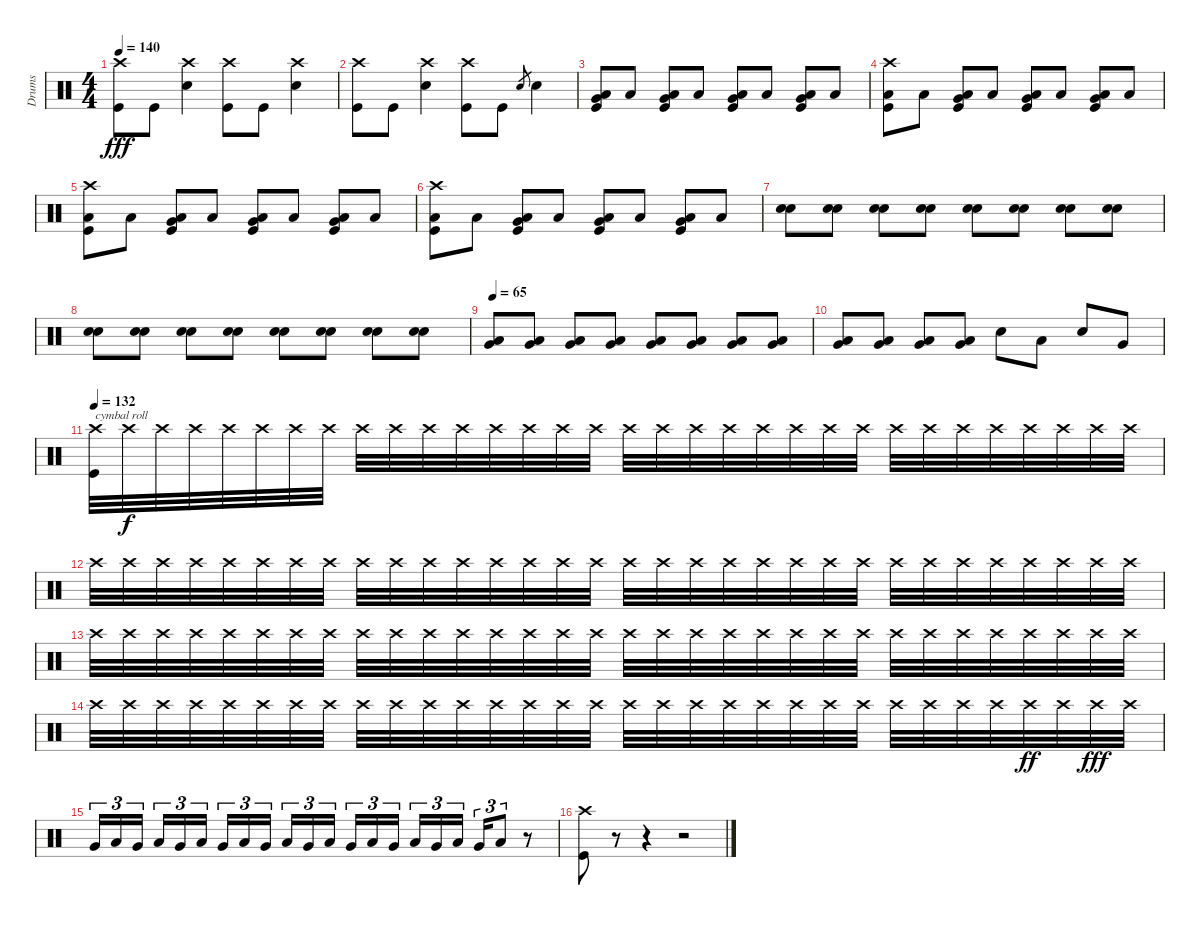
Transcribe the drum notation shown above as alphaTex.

\track ("Drums" "Drums") {instrument percussion}
\staff {score}
\articulation defaults
\ts (4 4)
\tempo 140
\clef neutral
\ks c
("Crash high (hit)" "Kick (hit)").8{dy fff} "Kick (hit)".8 ("Crash high (hit)" "Snare (hit) 2").4 ("Crash high (hit)" "Kick (hit)").8 "Kick (hit)".8 ("Crash high (hit)" "Snare (hit) 2").4 |
("Crash high (hit)" "Kick (hit)").8 "Kick (hit)".8 ("Crash high (hit)" "Snare (hit) 2").4 ("Crash high (hit)" "Kick (hit)").8 "Kick (hit)".8 "Snare (hit) 2".8{gr} "Snare (hit) 2".4 |
("Very Low Tom (hit)" "Low Floor Tom (hit)" "Kick (hit)").8 "Low Floor Tom (hit)".8 ("Very Low Tom (hit)" "Low Floor Tom (hit)" "Kick (hit)").8 "Low Floor Tom (hit)".8 ("Very Low Tom (hit)" "Low Floor Tom (hit)" "Kick (hit)").8 "Low Floor Tom (hit)".8 ("Very Low Tom (hit)" "Low Floor Tom (hit)" "Kick (hit)").8 "Low Floor Tom (hit)".8 |
("Crash high (hit)" "Low Floor Tom (hit)" "Kick (hit)").8 "Low Floor Tom (hit)".8 ("Very Low Tom (hit)" "Low Floor Tom (hit)" "Kick (hit)").8 "Low Floor Tom (hit)".8 ("Very Low Tom (hit)" "Low Floor Tom (hit)" "Kick (hit)").8 "Low Floor Tom (hit)".8 ("Very Low Tom (hit)" "Low Floor Tom (hit)" "Kick (hit)").8 "Low Floor Tom (hit)".8 |
("Crash high (hit)" "Low Floor Tom (hit)" "Kick (hit)").8 "Low Floor Tom (hit)".8 ("Very Low Tom (hit)" "Low Floor Tom (hit)" "Kick (hit)").8 "Low Floor Tom (hit)".8 ("Very Low Tom (hit)" "Low Floor Tom (hit)" "Kick (hit)").8 "Low Floor Tom (hit)".8 ("Very Low Tom (hit)" "Low Floor Tom (hit)" "Kick (hit)").8 "Low Floor Tom (hit)".8 |
("Crash high (hit)" "Low Floor Tom (hit)" "Kick (hit)").8 "Low Floor Tom (hit)".8 ("Very Low Tom (hit)" "Low Floor Tom (hit)" "Kick (hit)").8 "Low Floor Tom (hit)".8 ("Very Low Tom (hit)" "Low Floor Tom (hit)" "Kick (hit)").8 "Low Floor Tom (hit)".8 ("Very Low Tom (hit)" "Low Floor Tom (hit)" "Kick (hit)").8 "Low Floor Tom (hit)".8 |
("Snare (hit) 2" "Snare (hit) 2").8 ("Snare (hit) 2" "Snare (hit) 2").8 ("Snare (hit) 2" "Snare (hit) 2").8 ("Snare (hit) 2" "Snare (hit) 2").8 ("Snare (hit) 2" "Snare (hit) 2").8 ("Snare (hit) 2" "Snare (hit) 2").8 ("Snare (hit) 2" "Snare (hit) 2").8 ("Snare (hit) 2" "Snare (hit) 2").8 |
("Snare (hit) 2" "Snare (hit) 2").8 ("Snare (hit) 2" "Snare (hit) 2").8 ("Snare (hit) 2" "Snare (hit) 2").8 ("Snare (hit) 2" "Snare (hit) 2").8 ("Snare (hit) 2" "Snare (hit) 2").8 ("Snare (hit) 2" "Snare (hit) 2").8 ("Snare (hit) 2" "Snare (hit) 2").8 ("Snare (hit) 2" "Snare (hit) 2").8 |
\tempo 65
("Low Tom (hit)" "Very Low Tom (hit)").8 ("Low Tom (hit)" "Very Low Tom (hit)").8 ("Low Tom (hit)" "Very Low Tom (hit)").8 ("Low Tom (hit)" "Very Low Tom (hit)").8 ("Low Tom (hit)" "Very Low Tom (hit)").8 ("Low Tom (hit)" "Very Low Tom (hit)").8 ("Low Tom (hit)" "Very Low Tom (hit)").8 ("Low Tom (hit)" "Very Low Tom (hit)").8 |
("Low Tom (hit)" "Very Low Tom (hit)").8 ("Low Tom (hit)" "Very Low Tom (hit)").8 ("Low Tom (hit)" "Very Low Tom (hit)").8 ("Low Tom (hit)" "Very Low Tom (hit)").8 "Snare (hit) 2".8 "Low Tom (hit)".8 "Snare (hit) 2".8 "Very Low Tom (hit)".8 |
\tempo 132
("Crash high (hit)" "Kick (hit)").32{txt "cymbal roll"} "Crash high (hit)".32{dy f} "Crash high (hit)".32 "Crash high (hit)".32 "Crash high (hit)".32 "Crash high (hit)".32 "Crash high (hit)".32 "Crash high (hit)".32 "Crash high (hit)".32 "Crash high (hit)".32 "Crash high (hit)".32 "Crash high (hit)".32 "Crash high (hit)".32 "Crash high (hit)".32 "Crash high (hit)".32 "Crash high (hit)".32 "Crash high (hit)".32 "Crash high (hit)".32 "Crash high (hit)".32 "Crash high (hit)".32 "Crash high (hit)".32 "Crash high (hit)".32 "Crash high (hit)".32 "Crash high (hit)".32 "Crash high (hit)".32 "Crash high (hit)".32 "Crash high (hit)".32 "Crash high (hit)".32 "Crash high (hit)".32 "Crash high (hit)".32 "Crash high (hit)".32 "Crash high (hit)".32 |
"Crash high (hit)".32 "Crash high (hit)".32 "Crash high (hit)".32 "Crash high (hit)".32 "Crash high (hit)".32 "Crash high (hit)".32 "Crash high (hit)".32 "Crash high (hit)".32 "Crash high (hit)".32 "Crash high (hit)".32 "Crash high (hit)".32 "Crash high (hit)".32 "Crash high (hit)".32 "Crash high (hit)".32 "Crash high (hit)".32 "Crash high (hit)".32 "Crash high (hit)".32 "Crash high (hit)".32 "Crash high (hit)".32 "Crash high (hit)".32 "Crash high (hit)".32 "Crash high (hit)".32 "Crash high (hit)".32 "Crash high (hit)".32 "Crash high (hit)".32 "Crash high (hit)".32 "Crash high (hit)".32 "Crash high (hit)".32 "Crash high (hit)".32 "Crash high (hit)".32 "Crash high (hit)".32 "Crash high (hit)".32 |
"Crash high (hit)".32 "Crash high (hit)".32 "Crash high (hit)".32 "Crash high (hit)".32 "Crash high (hit)".32 "Crash high (hit)".32 "Crash high (hit)".32 "Crash high (hit)".32 "Crash high (hit)".32 "Crash high (hit)".32 "Crash high (hit)".32 "Crash high (hit)".32 "Crash high (hit)".32 "Crash high (hit)".32 "Crash high (hit)".32 "Crash high (hit)".32 "Crash high (hit)".32 "Crash high (hit)".32 "Crash high (hit)".32 "Crash high (hit)".32 "Crash high (hit)".32 "Crash high (hit)".32 "Crash high (hit)".32 "Crash high (hit)".32 "Crash high (hit)".32 "Crash high (hit)".32 "Crash high (hit)".32 "Crash high (hit)".32 "Crash high (hit)".32 "Crash high (hit)".32 "Crash high (hit)".32 "Crash high (hit)".32 |
"Crash high (hit)".32 "Crash high (hit)".32 "Crash high (hit)".32 "Crash high (hit)".32 "Crash high (hit)".32 "Crash high (hit)".32 "Crash high (hit)".32 "Crash high (hit)".32 "Crash high (hit)".32 "Crash high (hit)".32 "Crash high (hit)".32 "Crash high (hit)".32 "Crash high (hit)".32 "Crash high (hit)".32 "Crash high (hit)".32 "Crash high (hit)".32 "Crash high (hit)".32 "Crash high (hit)".32 "Crash high (hit)".32 "Crash high (hit)".32 "Crash high (hit)".32 "Crash high (hit)".32 "Crash high (hit)".32 "Crash high (hit)".32 "Crash high (hit)".32 "Crash high (hit)".32 "Crash high (hit)".32 "Crash high (hit)".32 "Crash high (hit)".32{dy ff} "Crash high (hit)".32 "Crash high (hit)".32{dy fff} "Crash high (hit)".32 |
"Very Low Tom (hit)".16{tu (3 2)} "Low Tom (hit)".16{tu (3 2)} "Very Low Tom (hit)".16{tu (3 2) beam splitsecondary} "Low Tom (hit)".16{tu (3 2)} "Very Low Tom (hit)".16{tu (3 2)} "Low Tom (hit)".16{tu (3 2)} "Very Low Tom (hit)".16{tu (3 2)} "Low Tom (hit)".16{tu (3 2)} "Very Low Tom (hit)".16{tu (3 2) beam splitsecondary} "Low Tom (hit)".16{tu (3 2)} "Very Low Tom (hit)".16{tu (3 2)} "Low Tom (hit)".16{tu (3 2)} "Very Low Tom (hit)".16{tu (3 2)} "Low Tom (hit)".16{tu (3 2)} "Very Low Tom (hit)".16{tu (3 2) beam splitsecondary} "Low Tom (hit)".16{tu (3 2)} "Very Low Tom (hit)".16{tu (3 2)} "Low Tom (hit)".16{tu (3 2)} "Very Low Tom (hit)".16{tu (3 2)} "Low Tom (hit)".8{tu (3 2)} r.8 |
("Crash high (hit)" "Kick (hit)").8 r.8 r.4 r.2
